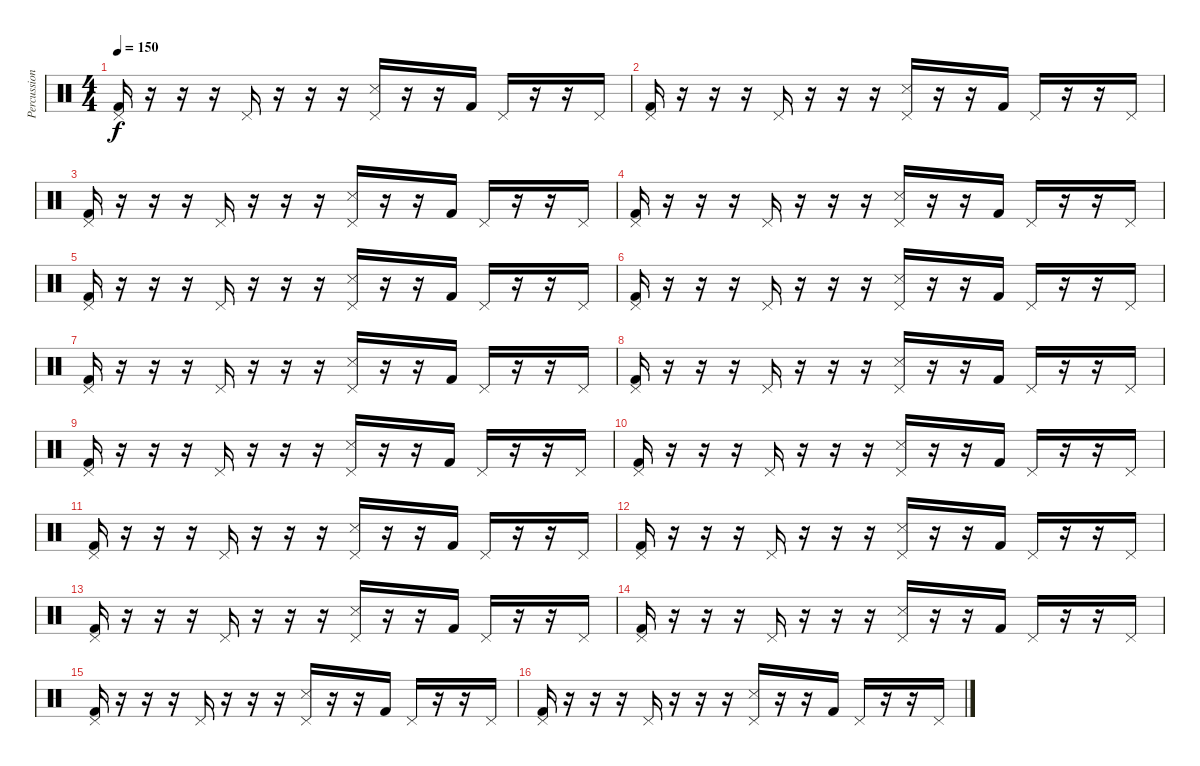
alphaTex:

\track ("Percussion" "Percussion") {instrument percussion}
\staff {score}
\articulation defaults
\ts (4 4)
\tempo 150
\clef neutral
\ks c
("Pedal Hi-Hat (hit)" "Kick (hit) 2").16{dy f} r.16 r.16 r.16 "Pedal Hi-Hat (hit)".16 r.16 r.16 r.16 ("Pedal Hi-Hat (hit)" "Snare (side stick) 3").16 r.16 r.16 "Kick (hit) 2".16 "Pedal Hi-Hat (hit)".16 r.16 r.16 "Pedal Hi-Hat (hit)".16 |
("Pedal Hi-Hat (hit)" "Kick (hit) 2").16 r.16 r.16 r.16 "Pedal Hi-Hat (hit)".16 r.16 r.16 r.16 ("Pedal Hi-Hat (hit)" "Snare (side stick) 3").16 r.16 r.16 "Kick (hit) 2".16 "Pedal Hi-Hat (hit)".16 r.16 r.16 "Pedal Hi-Hat (hit)".16 |
("Pedal Hi-Hat (hit)" "Kick (hit) 2").16 r.16 r.16 r.16 "Pedal Hi-Hat (hit)".16 r.16 r.16 r.16 ("Pedal Hi-Hat (hit)" "Snare (side stick) 3").16 r.16 r.16 "Kick (hit) 2".16 "Pedal Hi-Hat (hit)".16 r.16 r.16 "Pedal Hi-Hat (hit)".16 |
("Pedal Hi-Hat (hit)" "Kick (hit) 2").16 r.16 r.16 r.16 "Pedal Hi-Hat (hit)".16 r.16 r.16 r.16 ("Pedal Hi-Hat (hit)" "Snare (side stick) 3").16 r.16 r.16 "Kick (hit) 2".16 "Pedal Hi-Hat (hit)".16 r.16 r.16 "Pedal Hi-Hat (hit)".16 |
("Pedal Hi-Hat (hit)" "Kick (hit) 2").16 r.16 r.16 r.16 "Pedal Hi-Hat (hit)".16 r.16 r.16 r.16 ("Pedal Hi-Hat (hit)" "Snare (side stick) 3").16 r.16 r.16 "Kick (hit) 2".16 "Pedal Hi-Hat (hit)".16 r.16 r.16 "Pedal Hi-Hat (hit)".16 |
("Pedal Hi-Hat (hit)" "Kick (hit) 2").16 r.16 r.16 r.16 "Pedal Hi-Hat (hit)".16 r.16 r.16 r.16 ("Pedal Hi-Hat (hit)" "Snare (side stick) 3").16 r.16 r.16 "Kick (hit) 2".16 "Pedal Hi-Hat (hit)".16 r.16 r.16 "Pedal Hi-Hat (hit)".16 |
("Pedal Hi-Hat (hit)" "Kick (hit) 2").16 r.16 r.16 r.16 "Pedal Hi-Hat (hit)".16 r.16 r.16 r.16 ("Pedal Hi-Hat (hit)" "Snare (side stick) 3").16 r.16 r.16 "Kick (hit) 2".16 "Pedal Hi-Hat (hit)".16 r.16 r.16 "Pedal Hi-Hat (hit)".16 |
("Pedal Hi-Hat (hit)" "Kick (hit) 2").16 r.16 r.16 r.16 "Pedal Hi-Hat (hit)".16 r.16 r.16 r.16 ("Pedal Hi-Hat (hit)" "Snare (side stick) 3").16 r.16 r.16 "Kick (hit) 2".16 "Pedal Hi-Hat (hit)".16 r.16 r.16 "Pedal Hi-Hat (hit)".16 |
("Pedal Hi-Hat (hit)" "Kick (hit) 2").16 r.16 r.16 r.16 "Pedal Hi-Hat (hit)".16 r.16 r.16 r.16 ("Pedal Hi-Hat (hit)" "Snare (side stick) 3").16 r.16 r.16 "Kick (hit) 2".16 "Pedal Hi-Hat (hit)".16 r.16 r.16 "Pedal Hi-Hat (hit)".16 |
("Pedal Hi-Hat (hit)" "Kick (hit) 2").16 r.16 r.16 r.16 "Pedal Hi-Hat (hit)".16 r.16 r.16 r.16 ("Pedal Hi-Hat (hit)" "Snare (side stick) 3").16 r.16 r.16 "Kick (hit) 2".16 "Pedal Hi-Hat (hit)".16 r.16 r.16 "Pedal Hi-Hat (hit)".16 |
("Pedal Hi-Hat (hit)" "Kick (hit) 2").16 r.16 r.16 r.16 "Pedal Hi-Hat (hit)".16 r.16 r.16 r.16 ("Pedal Hi-Hat (hit)" "Snare (side stick) 3").16 r.16 r.16 "Kick (hit) 2".16 "Pedal Hi-Hat (hit)".16 r.16 r.16 "Pedal Hi-Hat (hit)".16 |
("Pedal Hi-Hat (hit)" "Kick (hit) 2").16 r.16 r.16 r.16 "Pedal Hi-Hat (hit)".16 r.16 r.16 r.16 ("Pedal Hi-Hat (hit)" "Snare (side stick) 3").16 r.16 r.16 "Kick (hit) 2".16 "Pedal Hi-Hat (hit)".16 r.16 r.16 "Pedal Hi-Hat (hit)".16 |
("Pedal Hi-Hat (hit)" "Kick (hit) 2").16 r.16 r.16 r.16 "Pedal Hi-Hat (hit)".16 r.16 r.16 r.16 ("Pedal Hi-Hat (hit)" "Snare (side stick) 3").16 r.16 r.16 "Kick (hit) 2".16 "Pedal Hi-Hat (hit)".16 r.16 r.16 "Pedal Hi-Hat (hit)".16 |
("Pedal Hi-Hat (hit)" "Kick (hit) 2").16 r.16 r.16 r.16 "Pedal Hi-Hat (hit)".16 r.16 r.16 r.16 ("Pedal Hi-Hat (hit)" "Snare (side stick) 3").16 r.16 r.16 "Kick (hit) 2".16 "Pedal Hi-Hat (hit)".16 r.16 r.16 "Pedal Hi-Hat (hit)".16 |
("Pedal Hi-Hat (hit)" "Kick (hit) 2").16 r.16 r.16 r.16 "Pedal Hi-Hat (hit)".16 r.16 r.16 r.16 ("Pedal Hi-Hat (hit)" "Snare (side stick) 3").16 r.16 r.16 "Kick (hit) 2".16 "Pedal Hi-Hat (hit)".16 r.16 r.16 "Pedal Hi-Hat (hit)".16 |
("Pedal Hi-Hat (hit)" "Kick (hit) 2").16 r.16 r.16 r.16 "Pedal Hi-Hat (hit)".16 r.16 r.16 r.16 ("Pedal Hi-Hat (hit)" "Snare (side stick) 3").16 r.16 r.16 "Kick (hit) 2".16 "Pedal Hi-Hat (hit)".16 r.16 r.16 "Pedal Hi-Hat (hit)".16
